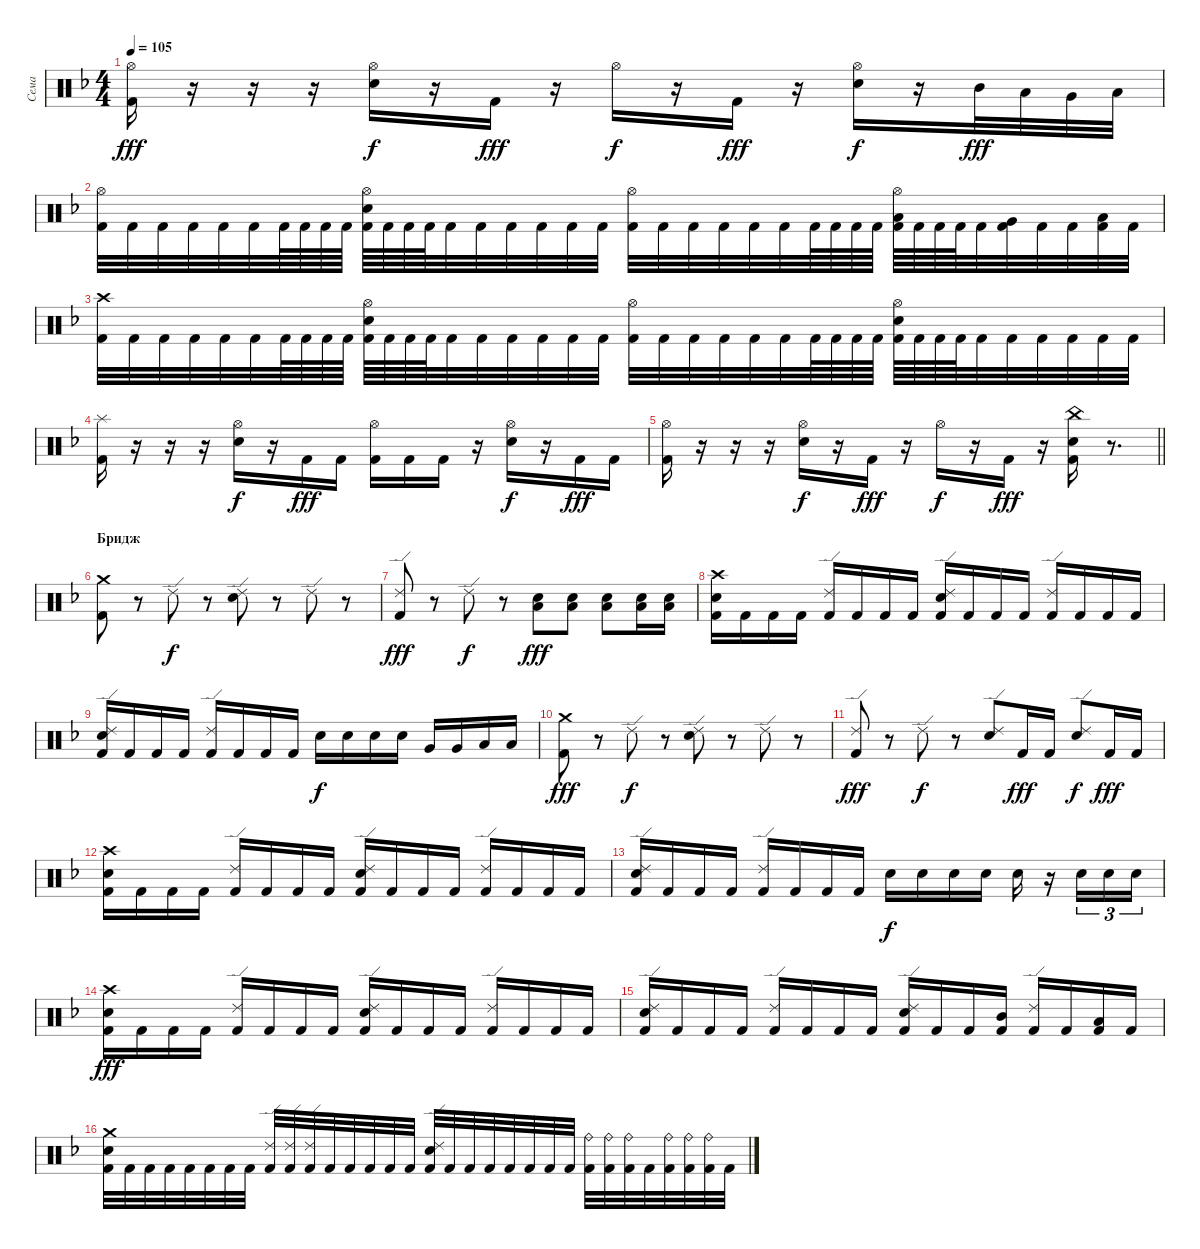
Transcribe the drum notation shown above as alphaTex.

\track ("Сема" "Сема") {instrument percussion}
\staff {score}
\articulation defaults
\ts (4 4)
\tempo 105
\clef neutral
\ks dminor
("Hi-Hat (open)" "Kick (hit) 2").16{dy fff} r.16 r.16 r.16 ("Hi-Hat (open)" "Electric Snare (hit)").16{dy f} r.16 "Kick (hit) 2".16{dy fff} r.16 "Hi-Hat (open)".16{dy f} r.16 "Kick (hit) 2".16{dy fff} r.16 ("Hi-Hat (open)" "Electric Snare (hit)").16{dy f} r.16 "Mid Tom (hit)".32{dy fff} "Low Tom (hit)".32 "Very Low Tom (hit)".32 "Low Floor Tom (hit)".32 |
("Hi-Hat (open)" "Kick (hit) 2").32 "Kick (hit) 2".32 "Kick (hit) 2".32 "Kick (hit) 2".32 "Kick (hit) 2".32 "Kick (hit) 2".32 "Kick (hit) 2".64 "Kick (hit) 2".64 "Kick (hit) 2".64 "Kick (hit) 2".64 ("Hi-Hat (open)" "Electric Snare (hit)" "Kick (hit) 2").64 "Kick (hit) 2".64 "Kick (hit) 2".64 "Kick (hit) 2".64 "Kick (hit) 2".32 "Kick (hit) 2".32 "Kick (hit) 2".32 "Kick (hit) 2".32 "Kick (hit) 2".32 "Kick (hit) 2".32 ("Hi-Hat (open)" "Kick (hit) 2").32 "Kick (hit) 2".32 "Kick (hit) 2".32 "Kick (hit) 2".32 "Kick (hit) 2".32 "Kick (hit) 2".32 "Kick (hit) 2".64 "Kick (hit) 2".64 "Kick (hit) 2".64 "Kick (hit) 2".64 ("Hi-Hat (open)" "Low Tom (hit)" "Kick (hit) 2").64 "Kick (hit) 2".64 "Kick (hit) 2".64 "Kick (hit) 2".64 "Kick (hit) 2".32 ("Very Low Tom (hit)" "Kick (hit) 2").32 "Kick (hit) 2".32 "Kick (hit) 2".32 ("Low Floor Tom (hit)" "Kick (hit) 2").32 "Kick (hit) 2".32 |
("Crash high (hit)" "Kick (hit) 2").32 "Kick (hit) 2".32 "Kick (hit) 2".32 "Kick (hit) 2".32 "Kick (hit) 2".32 "Kick (hit) 2".32 "Kick (hit) 2".64 "Kick (hit) 2".64 "Kick (hit) 2".64 "Kick (hit) 2".64 ("Hi-Hat (open)" "Electric Snare (hit)" "Kick (hit) 2").64 "Kick (hit) 2".64 "Kick (hit) 2".64 "Kick (hit) 2".64 "Kick (hit) 2".32 "Kick (hit) 2".32 "Kick (hit) 2".32 "Kick (hit) 2".32 "Kick (hit) 2".32 "Kick (hit) 2".32 ("Hi-Hat (open)" "Kick (hit) 2").32 "Kick (hit) 2".32 "Kick (hit) 2".32 "Kick (hit) 2".32 "Kick (hit) 2".32 "Kick (hit) 2".32 "Kick (hit) 2".64 "Kick (hit) 2".64 "Kick (hit) 2".64 "Kick (hit) 2".64 ("Hi-Hat (open)" "Electric Snare (hit)" "Kick (hit) 2").64 "Kick (hit) 2".64 "Kick (hit) 2".64 "Kick (hit) 2".64 "Kick (hit) 2".32 "Kick (hit) 2".32 "Kick (hit) 2".32 "Kick (hit) 2".32 "Kick (hit) 2".32 "Kick (hit) 2".32 |
("Splash (hit)" "Kick (hit) 2").16 r.16 r.16 r.16 ("Hi-Hat (open)" "Electric Snare (hit)").16{dy f} r.16 "Kick (hit) 2".16{dy fff} "Kick (hit) 2".16 ("Hi-Hat (open)" "Kick (hit) 2").16 "Kick (hit) 2".16 "Kick (hit) 2".16 r.16 ("Hi-Hat (open)" "Electric Snare (hit)").16{dy f} r.16 "Kick (hit) 2".16{dy fff} "Kick (hit) 2".16 |
\barLineRight lightlight
("Hi-Hat (open)" "Kick (hit) 2").16 r.16 r.16 r.16 ("Hi-Hat (open)" "Electric Snare (hit)").16{dy f} r.16 "Kick (hit) 2".16{dy fff} r.16 "Hi-Hat (open)".16{dy f} r.16 "Kick (hit) 2".16{dy fff} r.16 ("China (hit)" "Electric Snare (hit)" "Kick (hit) 2").16 r.8{d} |
\section ("" "Бридж")
("Crash medium (hit)" "Kick (hit) 2").8 r.8 "Ride (edge) 2".8{dy f} r.8 ("Ride (edge) 2" "Electric Snare (hit)").8 r.8 "Ride (edge) 2".8 r.8 |
("Ride (edge) 2" "Kick (hit) 2").8{dy fff} r.8 "Ride (edge) 2".8{dy f} r.8 ("Low Floor Tom (hit)" "Electric Snare (hit)").8{dy fff} ("Low Floor Tom (hit)" "Electric Snare (hit)").8 ("Low Floor Tom (hit)" "Electric Snare (hit)").8 ("Low Floor Tom (hit)" "Electric Snare (hit)").16 ("Low Floor Tom (hit)" "Electric Snare (hit)").16 |
("Crash high (hit)" "Electric Snare (hit)" "Kick (hit) 2").16 "Kick (hit) 2".16 "Kick (hit) 2".16 "Kick (hit) 2".16 ("Ride (edge) 2" "Kick (hit) 2").16 "Kick (hit) 2".16 "Kick (hit) 2".16 "Kick (hit) 2".16 ("Ride (edge) 2" "Electric Snare (hit)" "Kick (hit) 2").16 "Kick (hit) 2".16 "Kick (hit) 2".16 "Kick (hit) 2".16 ("Ride (edge) 2" "Kick (hit) 2").16 "Kick (hit) 2".16 "Kick (hit) 2".16 "Kick (hit) 2".16 |
("Ride (edge) 2" "Electric Snare (hit)" "Kick (hit) 2").16 "Kick (hit) 2".16 "Kick (hit) 2".16 "Kick (hit) 2".16 ("Ride (edge) 2" "Kick (hit) 2").16 "Kick (hit) 2".16 "Kick (hit) 2".16 "Kick (hit) 2".16 "Electric Snare (hit)".16{dy f} "Electric Snare (hit)".16 "Electric Snare (hit)".16 "Electric Snare (hit)".16 "Very Low Tom (hit)".16 "Very Low Tom (hit)".16 "Low Floor Tom (hit)".16 "Low Floor Tom (hit)".16 |
("Crash medium (hit)" "Kick (hit) 2").8{dy fff} r.8 "Ride (edge) 2".8{dy f} r.8 ("Ride (edge) 2" "Electric Snare (hit)").8 r.8 "Ride (edge) 2".8 r.8 |
("Ride (edge) 2" "Kick (hit) 2").8{dy fff} r.8 "Ride (edge) 2".8{dy f} r.8 ("Ride (edge) 2" "Electric Snare (hit)").8 "Kick (hit) 2".16{dy fff} "Kick (hit) 2".16 ("Ride (edge) 2" "Electric Snare (hit)").8{dy f} "Kick (hit) 2".16{dy fff} "Kick (hit) 2".16 |
("Crash high (hit)" "Electric Snare (hit)" "Kick (hit) 2").16 "Kick (hit) 2".16 "Kick (hit) 2".16 "Kick (hit) 2".16 ("Ride (edge) 2" "Kick (hit) 2").16 "Kick (hit) 2".16 "Kick (hit) 2".16 "Kick (hit) 2".16 ("Ride (edge) 2" "Electric Snare (hit)" "Kick (hit) 2").16 "Kick (hit) 2".16 "Kick (hit) 2".16 "Kick (hit) 2".16 ("Ride (edge) 2" "Kick (hit) 2").16 "Kick (hit) 2".16 "Kick (hit) 2".16 "Kick (hit) 2".16 |
("Ride (edge) 2" "Electric Snare (hit)" "Kick (hit) 2").16 "Kick (hit) 2".16 "Kick (hit) 2".16 "Kick (hit) 2".16 ("Ride (edge) 2" "Kick (hit) 2").16 "Kick (hit) 2".16 "Kick (hit) 2".16 "Kick (hit) 2".16 "Electric Snare (hit)".16{dy f} "Electric Snare (hit)".16 "Electric Snare (hit)".16 "Electric Snare (hit)".16 "Electric Snare (hit)".16 r.16 "Electric Snare (hit)".16{tu (3 2)} "Electric Snare (hit)".16{tu (3 2)} "Electric Snare (hit)".16{tu (3 2)} |
("Crash high (hit)" "Electric Snare (hit)" "Kick (hit) 2").16{dy fff} "Kick (hit) 2".16 "Kick (hit) 2".16 "Kick (hit) 2".16 ("Ride (edge) 2" "Kick (hit) 2").16 "Kick (hit) 2".16 "Kick (hit) 2".16 "Kick (hit) 2".16 ("Ride (edge) 2" "Electric Snare (hit)" "Kick (hit) 2").16 "Kick (hit) 2".16 "Kick (hit) 2".16 "Kick (hit) 2".16 ("Ride (edge) 2" "Kick (hit) 2").16 "Kick (hit) 2".16 "Kick (hit) 2".16 "Kick (hit) 2".16 |
("Ride (edge) 2" "Electric Snare (hit)" "Kick (hit) 2").16 "Kick (hit) 2".16 "Kick (hit) 2".16 "Kick (hit) 2".16 ("Ride (edge) 2" "Kick (hit) 2").16 "Kick (hit) 2".16 "Kick (hit) 2".16 "Kick (hit) 2".16 ("Ride (edge) 2" "Electric Snare (hit)" "Kick (hit) 2").16 "Kick (hit) 2".16 "Kick (hit) 2".16 ("Mid Tom (hit)" "Kick (hit) 2").16 ("Ride (edge) 2" "Kick (hit) 2").16 "Kick (hit) 2".16 ("Low Tom (hit)" "Kick (hit) 2").16 "Kick (hit) 2".16 |
("Crash medium (hit)" "Electric Snare (hit)" "Kick (hit) 2").32 "Kick (hit) 2".32 "Kick (hit) 2".32 "Kick (hit) 2".32 "Kick (hit) 2".32 "Kick (hit) 2".32 "Kick (hit) 2".32 "Kick (hit) 2".32 ("Ride (edge) 2" "Kick (hit) 2").32 ("Ride (edge) 2" "Kick (hit) 2").32 ("Ride (edge) 2" "Kick (hit) 2").32 "Kick (hit) 2".32 "Kick (hit) 2".32 "Kick (hit) 2".32 "Kick (hit) 2".32 "Kick (hit) 2".32 ("Ride (edge) 2" "Electric Snare (hit)" "Kick (hit) 2").32 "Kick (hit) 2".32 "Kick (hit) 2".32 "Kick (hit) 2".32 "Kick (hit) 2".32 "Kick (hit) 2".32 "Kick (hit) 2".32 "Kick (hit) 2".32 ("Ride (bell)" "Kick (hit) 2").32 ("Ride (bell)" "Kick (hit) 2").32 ("Ride (bell)" "Kick (hit) 2").32 "Kick (hit) 2".32 ("Ride (bell)" "Kick (hit) 2").32 ("Ride (bell)" "Kick (hit) 2").32 ("Ride (bell)" "Kick (hit) 2").32 "Kick (hit) 2".32
